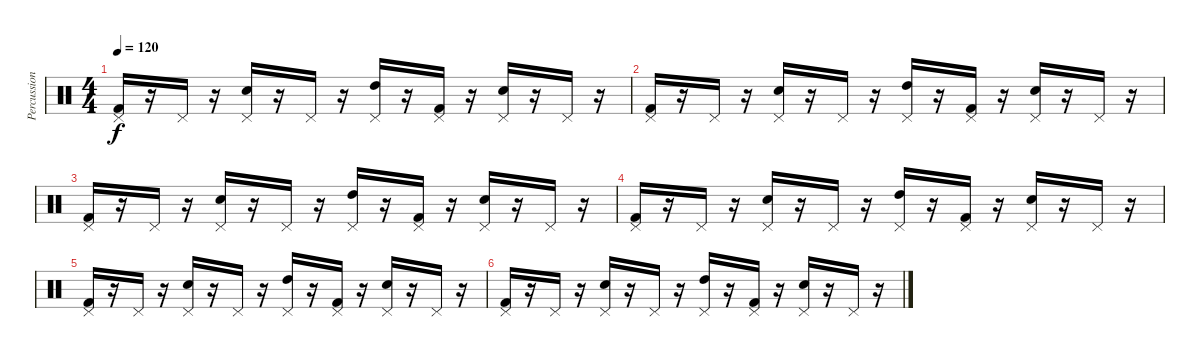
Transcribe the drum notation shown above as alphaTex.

\track ("Percussion" "Percussion") {instrument percussion}
\staff {score}
\articulation defaults
\ts (4 4)
\tempo 120
\clef neutral
\ks c
("Pedal Hi-Hat (hit)" "Kick (hit) 2").16{dy f} r.16 "Pedal Hi-Hat (hit)".16 r.16 ("Pedal Hi-Hat (hit)" "Snare (hit) 2").16 r.16 "Pedal Hi-Hat (hit)".16 r.16 ("Pedal Hi-Hat (hit)" "High Tom (hit)").16 r.16 ("Pedal Hi-Hat (hit)" "Kick (hit) 2").16 r.16 ("Pedal Hi-Hat (hit)" "Snare (hit) 2").16 r.16 "Pedal Hi-Hat (hit)".16 r.16 |
("Pedal Hi-Hat (hit)" "Kick (hit) 2").16 r.16 "Pedal Hi-Hat (hit)".16 r.16 ("Pedal Hi-Hat (hit)" "Snare (hit) 2").16 r.16 "Pedal Hi-Hat (hit)".16 r.16 ("Pedal Hi-Hat (hit)" "High Tom (hit)").16 r.16 ("Pedal Hi-Hat (hit)" "Kick (hit) 2").16 r.16 ("Pedal Hi-Hat (hit)" "Snare (hit) 2").16 r.16 "Pedal Hi-Hat (hit)".16 r.16 |
("Pedal Hi-Hat (hit)" "Kick (hit) 2").16 r.16 "Pedal Hi-Hat (hit)".16 r.16 ("Pedal Hi-Hat (hit)" "Snare (hit) 2").16 r.16 "Pedal Hi-Hat (hit)".16 r.16 ("Pedal Hi-Hat (hit)" "High Tom (hit)").16 r.16 ("Pedal Hi-Hat (hit)" "Kick (hit) 2").16 r.16 ("Pedal Hi-Hat (hit)" "Snare (hit) 2").16 r.16 "Pedal Hi-Hat (hit)".16 r.16 |
("Pedal Hi-Hat (hit)" "Kick (hit) 2").16 r.16 "Pedal Hi-Hat (hit)".16 r.16 ("Pedal Hi-Hat (hit)" "Snare (hit) 2").16 r.16 "Pedal Hi-Hat (hit)".16 r.16 ("Pedal Hi-Hat (hit)" "High Tom (hit)").16 r.16 ("Pedal Hi-Hat (hit)" "Kick (hit) 2").16 r.16 ("Pedal Hi-Hat (hit)" "Snare (hit) 2").16 r.16 "Pedal Hi-Hat (hit)".16 r.16 |
("Pedal Hi-Hat (hit)" "Kick (hit) 2").16 r.16 "Pedal Hi-Hat (hit)".16 r.16 ("Pedal Hi-Hat (hit)" "Snare (hit) 2").16 r.16 "Pedal Hi-Hat (hit)".16 r.16 ("Pedal Hi-Hat (hit)" "High Tom (hit)").16 r.16 ("Pedal Hi-Hat (hit)" "Kick (hit) 2").16 r.16 ("Pedal Hi-Hat (hit)" "Snare (hit) 2").16 r.16 "Pedal Hi-Hat (hit)".16 r.16 |
("Pedal Hi-Hat (hit)" "Kick (hit) 2").16 r.16 "Pedal Hi-Hat (hit)".16 r.16 ("Pedal Hi-Hat (hit)" "Snare (hit) 2").16 r.16 "Pedal Hi-Hat (hit)".16 r.16 ("Pedal Hi-Hat (hit)" "High Tom (hit)").16 r.16 ("Pedal Hi-Hat (hit)" "Kick (hit) 2").16 r.16 ("Pedal Hi-Hat (hit)" "Snare (hit) 2").16 r.16 "Pedal Hi-Hat (hit)".16 r.16
